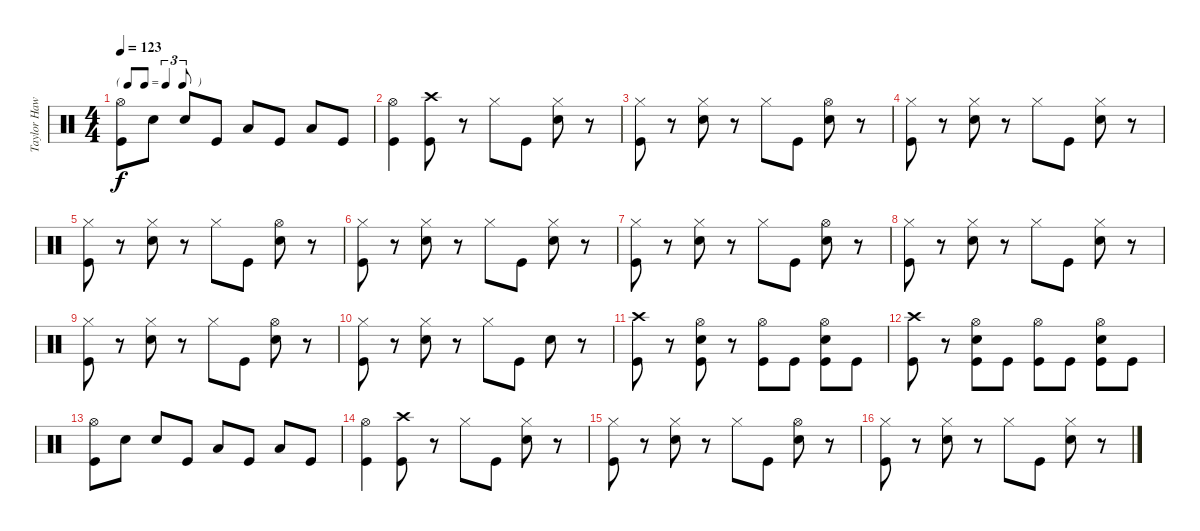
\track ("Taylor Hawkins - Drums" "Taylor Haw") {instrument percussion}
\staff {score}
\articulation defaults
\ts (4 4)
\tf triplet8th
\tempo 123
\clef neutral
\ks c
("Hi-Hat (open)" "Kick (hit)").8{dy f} "Electric Snare (hit)".8 "Electric Snare (hit)".8 "Kick (hit)".8 "Low Tom (hit)".8 "Kick (hit)".8 "Low Floor Tom (hit)".8 "Kick (hit)".8 |
("Hi-Hat (open)" "Kick (hit)").4 ("Crash high (hit)" "Kick (hit)").8 r.8 "Hi-Hat (closed)".8 "Kick (hit)".8 ("Hi-Hat (closed)" "Electric Snare (hit)").8 r.8 |
("Hi-Hat (closed)" "Kick (hit)").8 r.8 ("Hi-Hat (closed)" "Electric Snare (hit)").8 r.8 "Hi-Hat (closed)".8 "Kick (hit)".8 ("Hi-Hat (open)" "Electric Snare (hit)").8 r.8 |
("Hi-Hat (closed)" "Kick (hit)").8 r.8 ("Hi-Hat (closed)" "Electric Snare (hit)").8 r.8 "Hi-Hat (closed)".8 "Kick (hit)".8 ("Hi-Hat (closed)" "Electric Snare (hit)").8 r.8 |
("Hi-Hat (closed)" "Kick (hit)").8 r.8 ("Hi-Hat (closed)" "Electric Snare (hit)").8 r.8 "Hi-Hat (closed)".8 "Kick (hit)".8 ("Hi-Hat (open)" "Electric Snare (hit)").8 r.8 |
("Hi-Hat (closed)" "Kick (hit)").8 r.8 ("Hi-Hat (closed)" "Electric Snare (hit)").8 r.8 "Hi-Hat (closed)".8 "Kick (hit)".8 ("Hi-Hat (closed)" "Electric Snare (hit)").8 r.8 |
("Hi-Hat (closed)" "Kick (hit)").8 r.8 ("Hi-Hat (closed)" "Electric Snare (hit)").8 r.8 "Hi-Hat (closed)".8 "Kick (hit)".8 ("Hi-Hat (open)" "Electric Snare (hit)").8 r.8 |
("Hi-Hat (closed)" "Kick (hit)").8 r.8 ("Hi-Hat (closed)" "Electric Snare (hit)").8 r.8 "Hi-Hat (closed)".8 "Kick (hit)".8 ("Hi-Hat (closed)" "Electric Snare (hit)").8 r.8 |
("Hi-Hat (closed)" "Kick (hit)").8 r.8 ("Hi-Hat (closed)" "Electric Snare (hit)").8 r.8 "Hi-Hat (closed)".8 "Kick (hit)".8 ("Hi-Hat (open)" "Electric Snare (hit)").8 r.8 |
("Hi-Hat (closed)" "Kick (hit)").8 r.8 ("Hi-Hat (closed)" "Electric Snare (hit)").8 r.8 "Hi-Hat (closed)".8 "Kick (hit)".8 "Electric Snare (hit)".8 r.8 |
("Crash high (hit)" "Kick (hit)").8 r.8 ("Hi-Hat (open)" "Electric Snare (hit)" "Kick (hit)").8 r.8 ("Hi-Hat (open)" "Kick (hit)").8 "Kick (hit)".8 ("Hi-Hat (open)" "Electric Snare (hit)" "Kick (hit)").8 "Kick (hit)".8 |
("Crash high (hit)" "Kick (hit)").8 r.8 ("Hi-Hat (open)" "Electric Snare (hit)" "Kick (hit)").8 "Kick (hit)".8 ("Hi-Hat (open)" "Kick (hit)").8 "Kick (hit)".8 ("Hi-Hat (open)" "Electric Snare (hit)" "Kick (hit)").8 "Kick (hit)".8 |
("Hi-Hat (open)" "Kick (hit)").8 "Electric Snare (hit)".8 "Electric Snare (hit)".8 "Kick (hit)".8 "Low Tom (hit)".8 "Kick (hit)".8 "Low Floor Tom (hit)".8 "Kick (hit)".8 |
("Hi-Hat (open)" "Kick (hit)").4 ("Crash high (hit)" "Kick (hit)").8 r.8 "Hi-Hat (closed)".8 "Kick (hit)".8 ("Hi-Hat (closed)" "Electric Snare (hit)").8 r.8 |
("Hi-Hat (closed)" "Kick (hit)").8 r.8 ("Hi-Hat (closed)" "Electric Snare (hit)").8 r.8 "Hi-Hat (closed)".8 "Kick (hit)".8 ("Hi-Hat (open)" "Electric Snare (hit)").8 r.8 |
("Hi-Hat (closed)" "Kick (hit)").8 r.8 ("Hi-Hat (closed)" "Electric Snare (hit)").8 r.8 "Hi-Hat (closed)".8 "Kick (hit)".8 ("Hi-Hat (closed)" "Electric Snare (hit)").8 r.8
